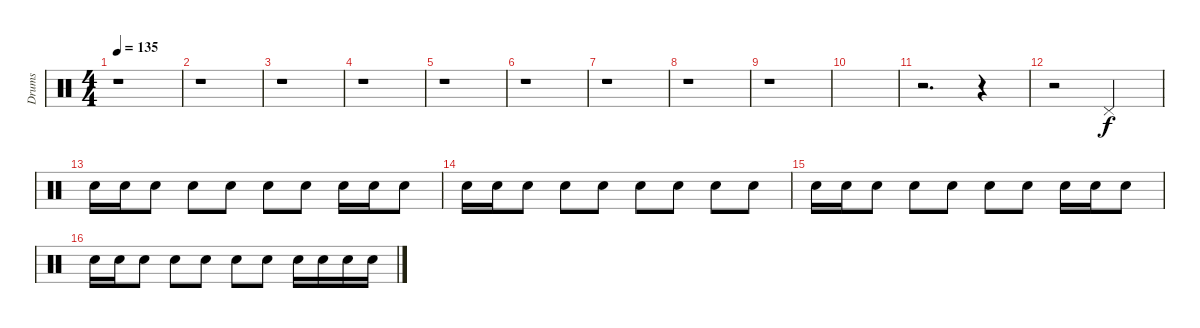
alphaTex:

\track ("Drums" "Drums") {instrument percussion}
\staff {score}
\articulation defaults
\ts (4 4)
\tempo 135
\clef neutral
\ks c
r.1{dy f} |
r.1 |
r.1 |
r.1 |
r.1 |
r.1 |
r.1 |
r.1 |
r.1 |
|
r.2{d} r.4 |
r.2 "Pedal Hi-Hat (hit)".2 |
"Electric Snare (hit)".16 "Electric Snare (hit)".16 "Electric Snare (hit)".8 "Electric Snare (hit)".8 "Electric Snare (hit)".8 "Electric Snare (hit)".8 "Electric Snare (hit)".8 "Electric Snare (hit)".16 "Electric Snare (hit)".16 "Electric Snare (hit)".8 |
"Electric Snare (hit)".16 "Electric Snare (hit)".16 "Electric Snare (hit)".8 "Electric Snare (hit)".8 "Electric Snare (hit)".8 "Electric Snare (hit)".8 "Electric Snare (hit)".8 "Electric Snare (hit)".8 "Electric Snare (hit)".8 |
"Electric Snare (hit)".16 "Electric Snare (hit)".16 "Electric Snare (hit)".8 "Electric Snare (hit)".8 "Electric Snare (hit)".8 "Electric Snare (hit)".8 "Electric Snare (hit)".8 "Electric Snare (hit)".16 "Electric Snare (hit)".16 "Electric Snare (hit)".8 |
"Electric Snare (hit)".16 "Electric Snare (hit)".16 "Electric Snare (hit)".8 "Electric Snare (hit)".8 "Electric Snare (hit)".8 "Electric Snare (hit)".8 "Electric Snare (hit)".8 "Electric Snare (hit)".16 "Electric Snare (hit)".16 "Electric Snare (hit)".16 "Electric Snare (hit)".16
